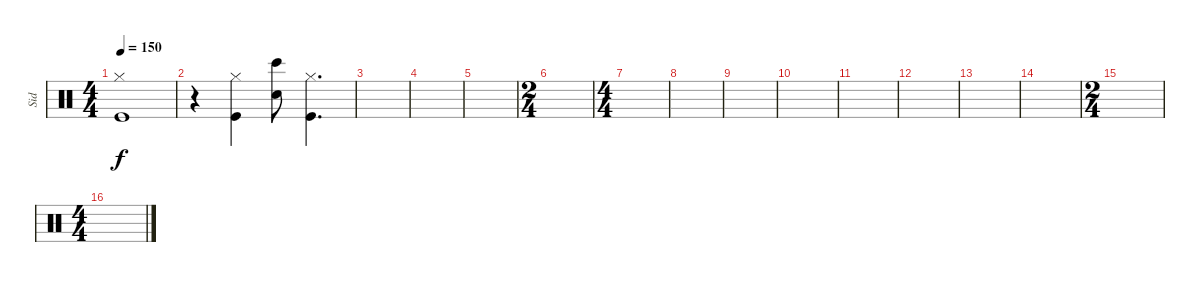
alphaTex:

\track ("Sid" "Sid") {instrument percussion}
\staff {score}
\articulation defaults
\ts (4 4)
\tempo 150
\clef neutral
\ks c
("Hi-Hat (closed)" "Kick (hit)").1{dy f} |
r.4 ("Hi-Hat (closed)" "Kick (hit)").4 ("Snare (hit) 2" "Bongo High (hit)").8 ("Hi-Hat (closed)" "Kick (hit)").4{d} |
|
|
|
\ts (2 4)
|
\ts (4 4)
|
|
|
|
|
|
|
|
\ts (2 4)
|
\ts (4 4)
